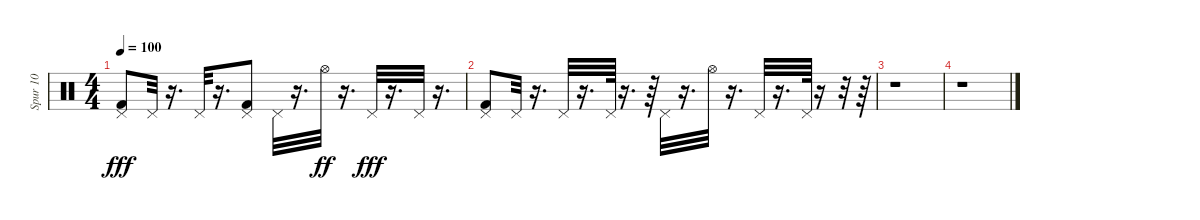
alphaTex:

\track ("Spur 10" "Spur 10") {instrument percussion}
\staff {score}
\articulation defaults
\ts (4 4)
\tempo 100
\clef neutral
\ks c
("Pedal Hi-Hat (hit)" "Kick (hit) 2").8{dy fff} "Pedal Hi-Hat (hit)".32 r.16{d} "Pedal Hi-Hat (hit)".32 r.16{d} ("Pedal Hi-Hat (hit)" "Kick (hit) 2").8 "Pedal Hi-Hat (hit)".32 r.16{d} "Hi-Hat (open)".32{dy ff} r.16{d} "Pedal Hi-Hat (hit)".32{dy fff} r.16{d} "Pedal Hi-Hat (hit)".32 r.16{d} |
("Pedal Hi-Hat (hit)" "Kick (hit) 2").8 "Pedal Hi-Hat (hit)".32 r.16{d} "Pedal Hi-Hat (hit)".32 r.16{d} "Pedal Hi-Hat (hit)".64 r.16{d} r.64 "Pedal Hi-Hat (hit)".32 r.16{d} "Hi-Hat (open)".32 r.16{d} "Pedal Hi-Hat (hit)".32 r.16{d} "Pedal Hi-Hat (hit)".64 r.16 r.32 r.64 |
r.1 |
r.1
